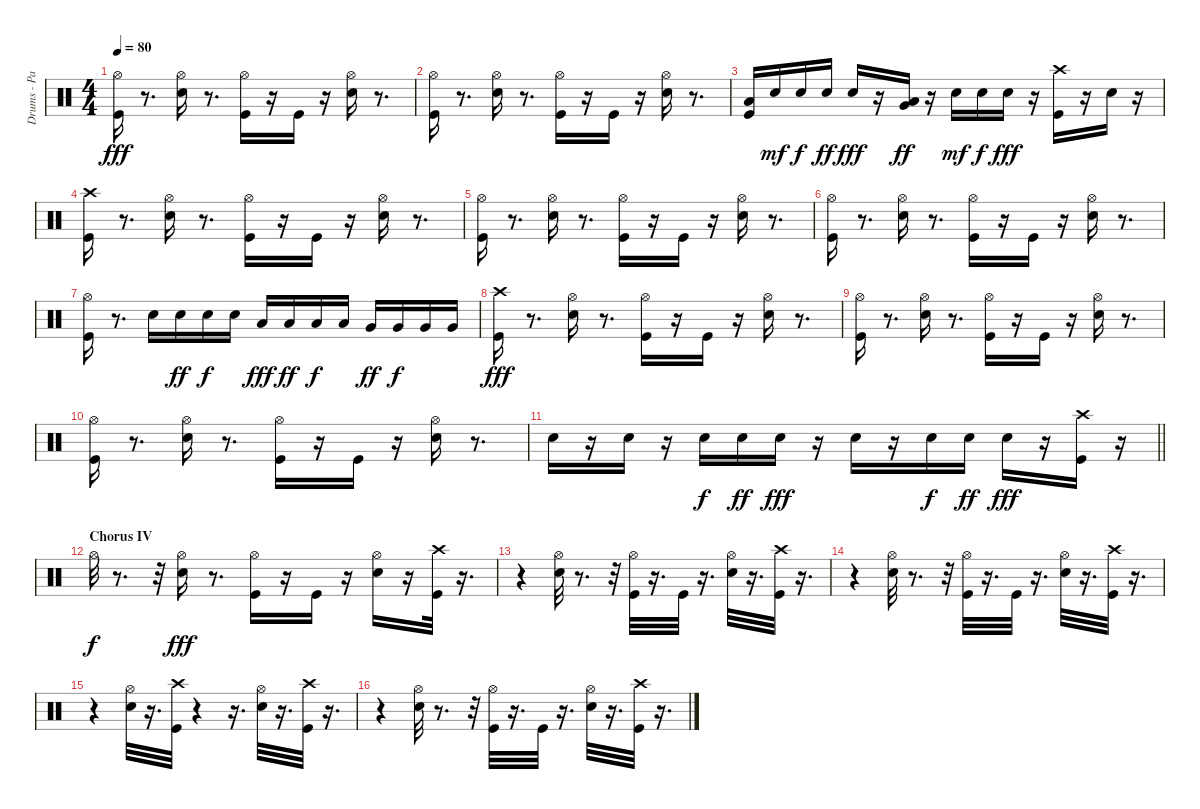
\track ("Drums - Paice" "Drums - Pa") {instrument percussion}
\staff {score}
\articulation defaults
\ts (4 4)
\tempo 80
\clef neutral
\ks c
("Kick (hit)" "Hi-Hat (open)").16{dy fff} r.8{d} ("Snare (hit) 2" "Hi-Hat (open)").16 r.8{d} ("Hi-Hat (open)" "Kick (hit)").16 r.16 "Kick (hit)".16 r.16 ("Hi-Hat (open)" "Snare (hit) 2").16 r.8{d} |
("Kick (hit)" "Hi-Hat (open)").16 r.8{d} ("Snare (hit) 2" "Hi-Hat (open)").16 r.8{d} ("Kick (hit)" "Hi-Hat (open)").16 r.16 "Kick (hit)".16 r.16 ("Snare (hit) 2" "Hi-Hat (open)").16 r.8{d} |
("Kick (hit)" "Low Tom (hit)").16 "Snare (hit) 2".16{dy mf} "Snare (hit) 2".16{dy f} "Snare (hit) 2".16{dy ff} "Snare (hit) 2".16{dy fff} r.16 ("Low Tom (hit)" "Very Low Tom (hit)").16{dy ff} r.16 "Snare (hit) 2".16{dy mf} "Snare (hit) 2".16{dy f} "Snare (hit) 2".16{dy fff} r.16 ("Crash high (hit)" "Kick (hit)").16 r.16 "Snare (hit) 2".16 r.16 |
("Kick (hit)" "Crash high (hit)").16 r.8{d} ("Snare (hit) 2" "Hi-Hat (open)").16 r.8{d} ("Kick (hit)" "Hi-Hat (open)").16 r.16 "Kick (hit)".16 r.16 ("Hi-Hat (open)" "Snare (hit) 2").16 r.8{d} |
("Kick (hit)" "Hi-Hat (open)").16 r.8{d} ("Hi-Hat (open)" "Snare (hit) 2").16 r.8{d} ("Hi-Hat (open)" "Kick (hit)").16 r.16 "Kick (hit)".16 r.16 ("Snare (hit) 2" "Hi-Hat (open)").16 r.8{d} |
("Kick (hit)" "Hi-Hat (open)").16 r.8{d} ("Hi-Hat (open)" "Snare (hit) 2").16 r.8{d} ("Kick (hit)" "Hi-Hat (open)").16 r.16 "Kick (hit)".16 r.16 ("Hi-Hat (open)" "Snare (hit) 2").16 r.8{d} |
("Kick (hit)" "Hi-Hat (open)").16 r.8{d} "Snare (hit) 2".16 "Snare (hit) 2".16{dy ff} "Snare (hit) 2".16{dy f} "Snare (hit) 2".16 "Low Tom (hit)".16{dy fff} "Low Tom (hit)".16{dy ff} "Low Tom (hit)".16{dy f} "Low Tom (hit)".16 "Very Low Tom (hit)".16{dy ff} "Very Low Tom (hit)".16{dy f} "Very Low Tom (hit)".16 "Very Low Tom (hit)".16 |
("Crash high (hit)" "Kick (hit)").16{dy fff} r.8{d} ("Hi-Hat (open)" "Snare (hit) 2").16 r.8{d} ("Hi-Hat (open)" "Kick (hit)").16 r.16 "Kick (hit)".16 r.16 ("Snare (hit) 2" "Hi-Hat (open)").16 r.8{d} |
("Kick (hit)" "Hi-Hat (open)").16 r.8{d} ("Snare (hit) 2" "Hi-Hat (open)").16 r.8{d} ("Kick (hit)" "Hi-Hat (open)").16 r.16 "Kick (hit)".16 r.16 ("Snare (hit) 2" "Hi-Hat (open)").16 r.8{d} |
("Hi-Hat (open)" "Kick (hit)").16 r.8{d} ("Hi-Hat (open)" "Snare (hit) 2").16 r.8{d} ("Kick (hit)" "Hi-Hat (open)").16 r.16 "Kick (hit)".16 r.16 ("Hi-Hat (open)" "Snare (hit) 2").16 r.8{d} |
\barLineRight lightlight "Snare (hit) 2".16
r.16 "Snare (hit) 2".16 r.16 "Snare (hit) 2".16{dy f} "Snare (hit) 2".16{dy ff} "Snare (hit) 2".16{dy fff} r.16 "Snare (hit) 2".16 r.16 "Snare (hit) 2".16{dy f} "Snare (hit) 2".16{dy ff} "Snare (hit) 2".16{dy fff} r.16 ("Kick (hit)" "Crash high (hit)").16 r.16 |
\section ("" "Chorus IV")
"Hi-Hat (open)".32{dy f} r.8{d} r.32 ("Snare (hit) 2" "Hi-Hat (open)").16{dy fff} r.8{d} ("Kick (hit)" "Hi-Hat (open)").16 r.16 "Kick (hit)".16 r.16 ("Hi-Hat (open)" "Snare (hit) 2").16 r.16 ("Kick (hit)" "Crash high (hit)").32 r.16{d} |
r.4 ("Hi-Hat (open)" "Snare (hit) 2").32 r.8{d} r.32 ("Kick (hit)" "Hi-Hat (open)").32 r.16{d} "Kick (hit)".32 r.16{d} ("Snare (hit) 2" "Hi-Hat (open)").32 r.16{d} ("Crash high (hit)" "Kick (hit)").32 r.16{d} |
r.4 ("Snare (hit) 2" "Hi-Hat (open)").32 r.8{d} r.32 ("Kick (hit)" "Hi-Hat (open)").32 r.16{d} "Kick (hit)".32 r.16{d} ("Snare (hit) 2" "Hi-Hat (open)").32 r.16{d} ("Kick (hit)" "Crash high (hit)").32 r.16{d} |
r.4 ("Hi-Hat (open)" "Snare (hit) 2").32 r.16{d} ("Kick (hit)" "Crash high (hit)").32 r.4 r.16{d} ("Snare (hit) 2" "Hi-Hat (open)").32 r.16{d} ("Kick (hit)" "Crash high (hit)").32 r.16{d} |
r.4 ("Hi-Hat (open)" "Snare (hit) 2").32 r.8{d} r.32 ("Kick (hit)" "Hi-Hat (open)").32 r.16{d} "Kick (hit)".32 r.16{d} ("Snare (hit) 2" "Hi-Hat (open)").32 r.16{d} ("Crash high (hit)" "Kick (hit)").32 r.16{d}
